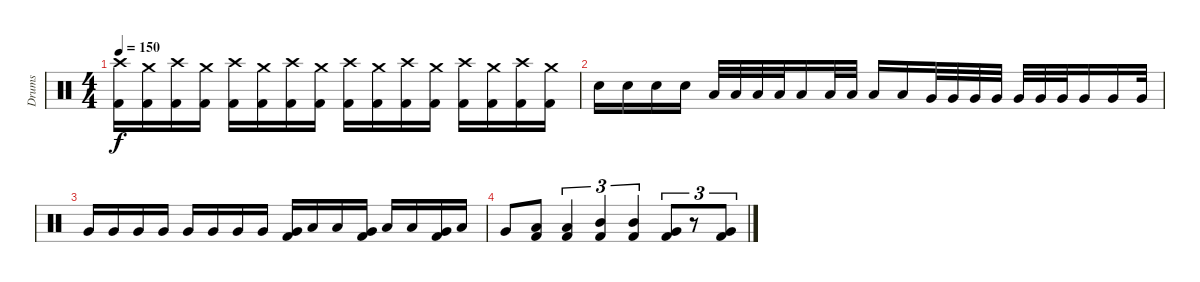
\track ("Drums" "Drums") {instrument percussion}
\staff {score}
\articulation defaults
\ts (4 4)
\tempo 150
\clef neutral
\ks c
("Kick (hit) 2" "Crash high (hit)").16{dy f} ("Kick (hit) 2" "Crash medium (hit)").16 ("Kick (hit) 2" "Crash high (hit)").16 ("Kick (hit) 2" "Crash medium (hit)").16 ("Kick (hit) 2" "Crash high (hit)").16 ("Kick (hit) 2" "Crash medium (hit)").16 ("Kick (hit) 2" "Crash high (hit)").16 ("Kick (hit) 2" "Crash medium (hit)").16 ("Kick (hit) 2" "Crash high (hit)").16 ("Kick (hit) 2" "Crash medium (hit)").16 ("Kick (hit) 2" "Crash high (hit)").16 ("Kick (hit) 2" "Crash medium (hit)").16 ("Kick (hit) 2" "Crash high (hit)").16 ("Kick (hit) 2" "Crash medium (hit)").16 ("Kick (hit) 2" "Crash high (hit)").16 ("Kick (hit) 2" "Crash medium (hit)").16 |
"Electric Snare (hit)".16 "Electric Snare (hit)".16 "Electric Snare (hit)".16 "Electric Snare (hit)".16 "Low Tom (hit)".32 "Low Tom (hit)".32 "Low Tom (hit)".32 "Low Tom (hit)".32 "Low Tom (hit)".16 "Low Tom (hit)".32 "Low Tom (hit)".32 "Low Tom (hit)".16 "Low Tom (hit)".16 "Very Low Tom (hit)".32 "Very Low Tom (hit)".32 "Very Low Tom (hit)".32 "Very Low Tom (hit)".32 "Very Low Tom (hit)".32 "Very Low Tom (hit)".32 "Very Low Tom (hit)".32 "Very Low Tom (hit)".16 "Very Low Tom (hit)".16 "Very Low Tom (hit)".32 |
"Very Low Tom (hit)".16 "Very Low Tom (hit)".16 "Very Low Tom (hit)".16 "Very Low Tom (hit)".16 "Very Low Tom (hit)".16 "Very Low Tom (hit)".16 "Very Low Tom (hit)".16 "Very Low Tom (hit)".16 ("Kick (hit) 2" "Very Low Tom (hit)").16 "Low Floor Tom (hit)".16 "Low Floor Tom (hit)".16 ("Kick (hit) 2" "Very Low Tom (hit)").16 "Low Floor Tom (hit)".16 "Low Floor Tom (hit)".16 ("Kick (hit) 2" "Very Low Tom (hit)").16 "Low Floor Tom (hit)".16 |
"Very Low Tom (hit)".8 ("Low Tom (hit)" "Kick (hit) 2").8 ("Low Tom (hit)" "Kick (hit) 2").4{tu (3 2)} ("Mid Tom (hit)" "Kick (hit) 2").4{tu (3 2)} ("Mid Tom (hit)" "Kick (hit) 2").4{tu (3 2)} ("Very Low Tom (hit)" "Kick (hit) 2").8{tu (3 2)} r.8{tu (3 2)} ("Very Low Tom (hit)" "Kick (hit) 2").8{tu (3 2)}
